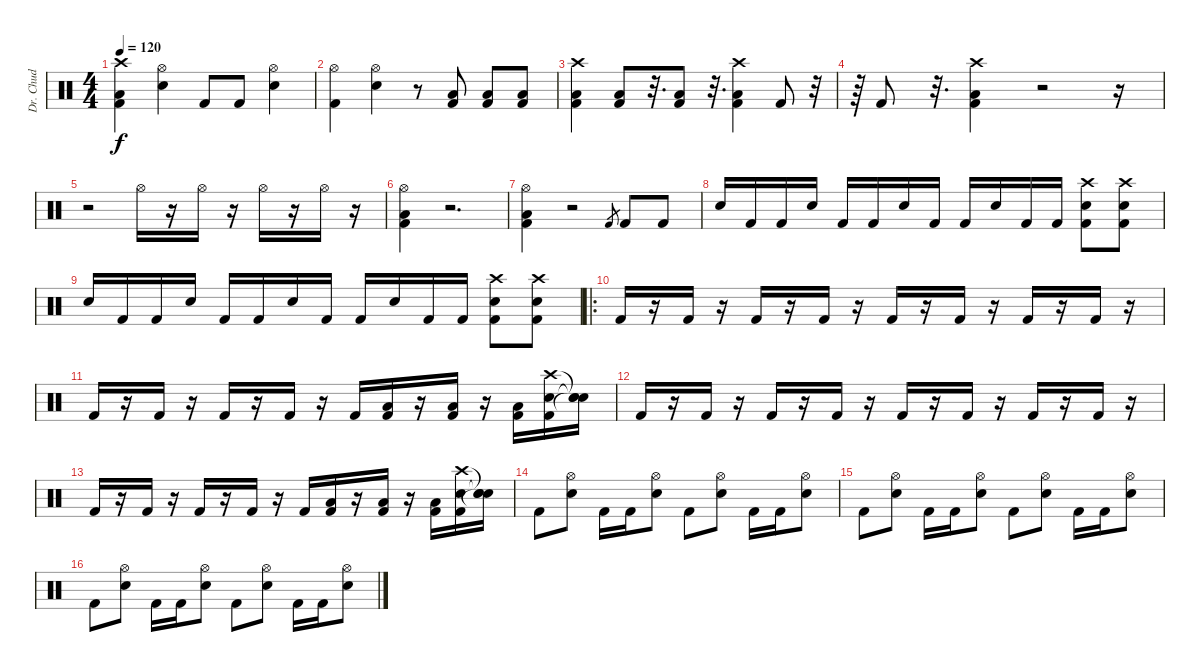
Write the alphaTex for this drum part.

\track ("Dr. Chud" "Dr. Chud") {instrument percussion}
\staff {score}
\articulation defaults
\ts (4 4)
\tempo 120
\clef neutral
\ks c
("Crash high (hit)" "Low Floor Tom (hit)" "Kick (hit) 2").4{dy f} ("Hi-Hat (open)" "Snare (hit) 2").4 "Kick (hit) 2".8 "Kick (hit) 2".8 ("Hi-Hat (open)" "Snare (hit) 2").4 |
("Hi-Hat (open)" "Kick (hit) 2").4 ("Hi-Hat (open)" "Snare (hit) 2").4 r.8 ("Low Floor Tom (hit)" "Kick (hit) 2").8 ("Low Floor Tom (hit)" "Kick (hit) 2").8 ("Low Floor Tom (hit)" "Kick (hit) 2").8 |
("Crash high (hit)" "Low Floor Tom (hit)" "Kick (hit) 2").4 ("Low Floor Tom (hit)" "Kick (hit) 2").8 r.32{d} ("Low Floor Tom (hit)" "Kick (hit) 2").8 r.32{d} ("Crash high (hit)" "Low Floor Tom (hit)" "Kick (hit) 2").4 "Kick (hit) 2".8 r.32 |
r.64 "Kick (hit) 2".8 r.32{d} ("Crash high (hit)" "Low Floor Tom (hit)" "Kick (hit) 2").4 r.2 r.16 |
r.2 "Hi-Hat (open)".16 r.16 "Hi-Hat (open)".16 r.16 "Hi-Hat (open)".16 r.16 "Hi-Hat (open)".16 r.16 |
("Hi-Hat (open)" "Low Floor Tom (hit)" "Kick (hit) 2").4 r.2{d} |
("Hi-Hat (open)" "Low Floor Tom (hit)" "Kick (hit) 2").4 r.2 "Kick (hit) 2".8{gr} "Kick (hit) 2".8 "Kick (hit) 2".8 |
"Snare (hit) 2".16 "Kick (hit) 2".16 "Kick (hit) 2".16 "Snare (hit) 2".16 "Kick (hit) 2".16 "Kick (hit) 2".16 "Snare (hit) 2".16 "Kick (hit) 2".16 "Kick (hit) 2".16 "Snare (hit) 2".16 "Kick (hit) 2".16 "Kick (hit) 2".16 ("Crash high (hit)" "Snare (hit) 2" "Kick (hit) 2").8 ("Crash high (hit)" "Snare (hit) 2" "Kick (hit) 2").8 |
"Snare (hit) 2".16 "Kick (hit) 2".16 "Kick (hit) 2".16 "Snare (hit) 2".16 "Kick (hit) 2".16 "Kick (hit) 2".16 "Snare (hit) 2".16 "Kick (hit) 2".16 "Kick (hit) 2".16 "Snare (hit) 2".16 "Kick (hit) 2".16 "Kick (hit) 2".16 ("Crash high (hit)" "Snare (hit) 2" "Kick (hit) 2").8 ("Crash high (hit)" "Snare (hit) 2" "Kick (hit) 2").8 |
\ro "Kick (hit) 2".16
r.16 "Kick (hit) 2".16 r.16 "Kick (hit) 2".16 r.16 "Kick (hit) 2".16 r.16 "Kick (hit) 2".16 r.16 "Kick (hit) 2".16 r.16 "Kick (hit) 2".16 r.16 "Kick (hit) 2".16 r.16 |
"Kick (hit) 2".16 r.16 "Kick (hit) 2".16 r.16 "Kick (hit) 2".16 r.16 "Kick (hit) 2".16 r.16 "Kick (hit) 2".16 ("Low Floor Tom (hit)" "Kick (hit) 2").16 r.16 ("Low Floor Tom (hit)" "Kick (hit) 2").16 r.16 ("Low Floor Tom (hit)" "Kick (hit) 2").16 ("Crash high (hit)" "Snare (hit) 2" "Kick (hit) 2").16 ("Snare (hit)"{t} "Snare (hit)"{t} "Snare (hit)"{t}).16 |
"Kick (hit) 2".16 r.16 "Kick (hit) 2".16 r.16 "Kick (hit) 2".16 r.16 "Kick (hit) 2".16 r.16 "Kick (hit) 2".16 r.16 "Kick (hit) 2".16 r.16 "Kick (hit) 2".16 r.16 "Kick (hit) 2".16 r.16 |
"Kick (hit) 2".16 r.16 "Kick (hit) 2".16 r.16 "Kick (hit) 2".16 r.16 "Kick (hit) 2".16 r.16 "Kick (hit) 2".16 ("Low Floor Tom (hit)" "Kick (hit) 2").16 r.16 ("Low Floor Tom (hit)" "Kick (hit) 2").16 r.16 ("Low Floor Tom (hit)" "Kick (hit) 2").16 ("Crash high (hit)" "Snare (hit) 2" "Kick (hit) 2").16 ("Snare (hit)"{t} "Snare (hit)"{t} "Snare (hit)"{t}).16 |
"Kick (hit) 2".8 ("Hi-Hat (open)" "Snare (hit) 2").8 "Kick (hit) 2".16 "Kick (hit) 2".16 ("Hi-Hat (open)" "Snare (hit) 2").8 "Kick (hit) 2".8 ("Hi-Hat (open)" "Snare (hit) 2").8 "Kick (hit) 2".16 "Kick (hit) 2".16 ("Hi-Hat (open)" "Snare (hit) 2").8 |
"Kick (hit) 2".8 ("Hi-Hat (open)" "Snare (hit) 2").8 "Kick (hit) 2".16 "Kick (hit) 2".16 ("Hi-Hat (open)" "Snare (hit) 2").8 "Kick (hit) 2".8 ("Hi-Hat (open)" "Snare (hit) 2").8 "Kick (hit) 2".16 "Kick (hit) 2".16 ("Hi-Hat (open)" "Snare (hit) 2").8 |
"Kick (hit) 2".8 ("Hi-Hat (open)" "Snare (hit) 2").8 "Kick (hit) 2".16 "Kick (hit) 2".16 ("Hi-Hat (open)" "Snare (hit) 2").8 "Kick (hit) 2".8 ("Hi-Hat (open)" "Snare (hit) 2").8 "Kick (hit) 2".16 "Kick (hit) 2".16 ("Hi-Hat (open)" "Snare (hit) 2").8
